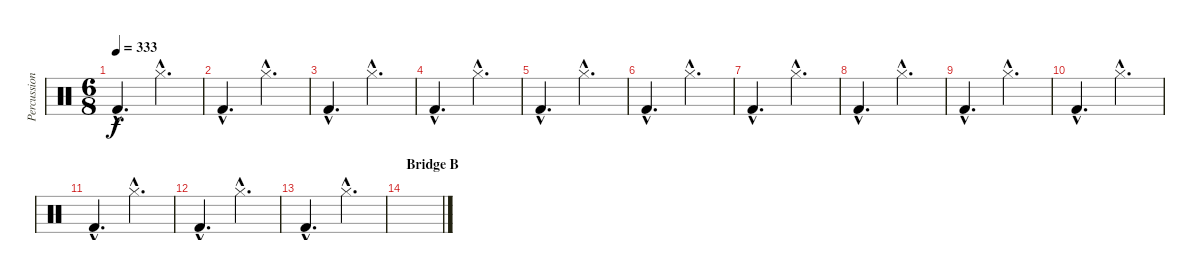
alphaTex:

\track ("Percussion" "Percussion") {instrument percussion}
\staff {score}
\articulation defaults
\ts (6 8)
\tempo 333
\clef neutral
\ks c "Kick (hit) 2"{hac}.4{d dy f} "Hi-Hat (closed)"{hac}.4{d}
|
"Kick (hit) 2"{hac}.4{d} "Hi-Hat (closed)"{hac}.4{d} |
"Kick (hit) 2"{hac}.4{d} "Hi-Hat (closed)"{hac}.4{d} |
"Kick (hit) 2"{hac}.4{d} "Hi-Hat (closed)"{hac}.4{d} |
"Kick (hit) 2"{hac}.4{d} "Hi-Hat (closed)"{hac}.4{d} |
"Kick (hit) 2"{hac}.4{d} "Hi-Hat (closed)"{hac}.4{d} |
"Kick (hit) 2"{hac}.4{d} "Hi-Hat (closed)"{hac}.4{d} |
"Kick (hit) 2"{hac}.4{d} "Hi-Hat (closed)"{hac}.4{d} |
"Kick (hit) 2"{hac}.4{d} "Hi-Hat (closed)"{hac}.4{d} |
"Kick (hit) 2"{hac}.4{d} "Hi-Hat (closed)"{hac}.4{d} |
"Kick (hit) 2"{hac}.4{d} "Hi-Hat (closed)"{hac}.4{d} |
"Kick (hit) 2"{hac}.4{d} "Hi-Hat (closed)"{hac}.4{d} |
"Kick (hit) 2"{hac}.4{d} "Hi-Hat (closed)"{hac}.4{d} |
\section ("" "Bridge B")
